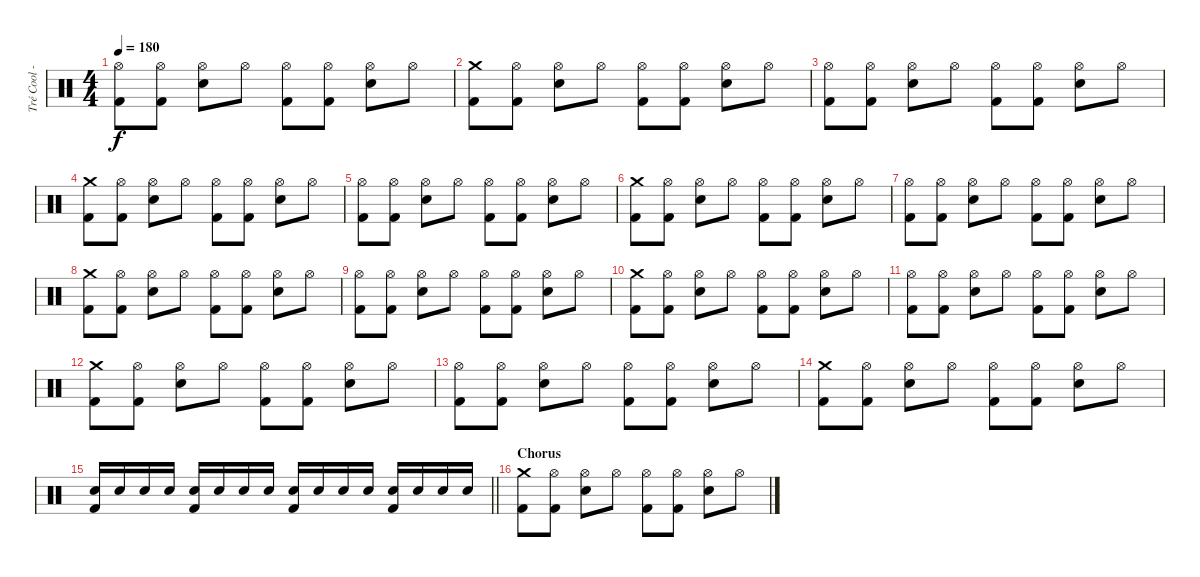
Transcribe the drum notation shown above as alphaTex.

\track ("Tré Cool - Drums" "Tré Cool -") {instrument percussion}
\staff {score}
\articulation defaults
\ts (4 4)
\tempo 180
\clef neutral
\ks c
("Hi-Hat (open)" "Kick (hit) 2").8{dy f} ("Hi-Hat (open)" "Kick (hit) 2").8 ("Hi-Hat (open)" "Electric Snare (hit)").8 "Hi-Hat (open)".8 ("Hi-Hat (open)" "Kick (hit) 2").8 ("Hi-Hat (open)" "Kick (hit) 2").8 ("Hi-Hat (open)" "Electric Snare (hit)").8 "Hi-Hat (open)".8 |
("Crash medium (hit)" "Kick (hit) 2").8 ("Hi-Hat (open)" "Kick (hit) 2").8 ("Hi-Hat (open)" "Electric Snare (hit)").8 "Hi-Hat (open)".8 ("Hi-Hat (open)" "Kick (hit) 2").8 ("Hi-Hat (open)" "Kick (hit) 2").8 ("Hi-Hat (open)" "Electric Snare (hit)").8 "Hi-Hat (open)".8 |
("Hi-Hat (open)" "Kick (hit) 2").8 ("Hi-Hat (open)" "Kick (hit) 2").8 ("Hi-Hat (open)" "Electric Snare (hit)").8 "Hi-Hat (open)".8 ("Hi-Hat (open)" "Kick (hit) 2").8 ("Hi-Hat (open)" "Kick (hit) 2").8 ("Hi-Hat (open)" "Electric Snare (hit)").8 "Hi-Hat (open)".8 |
("Crash medium (hit)" "Kick (hit) 2").8 ("Hi-Hat (open)" "Kick (hit) 2").8 ("Hi-Hat (open)" "Electric Snare (hit)").8 "Hi-Hat (open)".8 ("Hi-Hat (open)" "Kick (hit) 2").8 ("Hi-Hat (open)" "Kick (hit) 2").8 ("Hi-Hat (open)" "Electric Snare (hit)").8 "Hi-Hat (open)".8 |
("Hi-Hat (open)" "Kick (hit) 2").8 ("Hi-Hat (open)" "Kick (hit) 2").8 ("Hi-Hat (open)" "Electric Snare (hit)").8 "Hi-Hat (open)".8 ("Hi-Hat (open)" "Kick (hit) 2").8 ("Hi-Hat (open)" "Kick (hit) 2").8 ("Hi-Hat (open)" "Electric Snare (hit)").8 "Hi-Hat (open)".8 |
("Crash medium (hit)" "Kick (hit) 2").8 ("Hi-Hat (open)" "Kick (hit) 2").8 ("Hi-Hat (open)" "Electric Snare (hit)").8 "Hi-Hat (open)".8 ("Hi-Hat (open)" "Kick (hit) 2").8 ("Hi-Hat (open)" "Kick (hit) 2").8 ("Hi-Hat (open)" "Electric Snare (hit)").8 "Hi-Hat (open)".8 |
("Hi-Hat (open)" "Kick (hit) 2").8 ("Hi-Hat (open)" "Kick (hit) 2").8 ("Hi-Hat (open)" "Electric Snare (hit)").8 "Hi-Hat (open)".8 ("Hi-Hat (open)" "Kick (hit) 2").8 ("Hi-Hat (open)" "Kick (hit) 2").8 ("Hi-Hat (open)" "Electric Snare (hit)").8 "Hi-Hat (open)".8 |
("Crash medium (hit)" "Kick (hit) 2").8 ("Hi-Hat (open)" "Kick (hit) 2").8 ("Hi-Hat (open)" "Electric Snare (hit)").8 "Hi-Hat (open)".8 ("Hi-Hat (open)" "Kick (hit) 2").8 ("Hi-Hat (open)" "Kick (hit) 2").8 ("Hi-Hat (open)" "Electric Snare (hit)").8 "Hi-Hat (open)".8 |
("Hi-Hat (open)" "Kick (hit) 2").8 ("Hi-Hat (open)" "Kick (hit) 2").8 ("Hi-Hat (open)" "Electric Snare (hit)").8 "Hi-Hat (open)".8 ("Hi-Hat (open)" "Kick (hit) 2").8 ("Hi-Hat (open)" "Kick (hit) 2").8 ("Hi-Hat (open)" "Electric Snare (hit)").8 "Hi-Hat (open)".8 |
("Crash medium (hit)" "Kick (hit) 2").8 ("Hi-Hat (open)" "Kick (hit) 2").8 ("Hi-Hat (open)" "Electric Snare (hit)").8 "Hi-Hat (open)".8 ("Hi-Hat (open)" "Kick (hit) 2").8 ("Hi-Hat (open)" "Kick (hit) 2").8 ("Hi-Hat (open)" "Electric Snare (hit)").8 "Hi-Hat (open)".8 |
("Hi-Hat (open)" "Kick (hit) 2").8 ("Hi-Hat (open)" "Kick (hit) 2").8 ("Hi-Hat (open)" "Electric Snare (hit)").8 "Hi-Hat (open)".8 ("Hi-Hat (open)" "Kick (hit) 2").8 ("Hi-Hat (open)" "Kick (hit) 2").8 ("Hi-Hat (open)" "Electric Snare (hit)").8 "Hi-Hat (open)".8 |
("Crash medium (hit)" "Kick (hit) 2").8 ("Hi-Hat (open)" "Kick (hit) 2").8 ("Hi-Hat (open)" "Electric Snare (hit)").8 "Hi-Hat (open)".8 ("Hi-Hat (open)" "Kick (hit) 2").8 ("Hi-Hat (open)" "Kick (hit) 2").8 ("Hi-Hat (open)" "Electric Snare (hit)").8 "Hi-Hat (open)".8 |
("Hi-Hat (open)" "Kick (hit) 2").8 ("Hi-Hat (open)" "Kick (hit) 2").8 ("Hi-Hat (open)" "Electric Snare (hit)").8 "Hi-Hat (open)".8 ("Hi-Hat (open)" "Kick (hit) 2").8 ("Hi-Hat (open)" "Kick (hit) 2").8 ("Hi-Hat (open)" "Electric Snare (hit)").8 "Hi-Hat (open)".8 |
("Crash medium (hit)" "Kick (hit) 2").8 ("Hi-Hat (open)" "Kick (hit) 2").8 ("Hi-Hat (open)" "Electric Snare (hit)").8 "Hi-Hat (open)".8 ("Hi-Hat (open)" "Kick (hit) 2").8 ("Hi-Hat (open)" "Kick (hit) 2").8 ("Hi-Hat (open)" "Electric Snare (hit)").8 "Hi-Hat (open)".8 |
\barLineRight lightlight
("Kick (hit) 2" "Electric Snare (hit)").16 "Electric Snare (hit)".16 "Electric Snare (hit)".16 "Electric Snare (hit)".16 ("Kick (hit) 2" "Electric Snare (hit)").16 "Electric Snare (hit)".16 "Electric Snare (hit)".16 "Electric Snare (hit)".16 ("Kick (hit) 2" "Electric Snare (hit)").16 "Electric Snare (hit)".16 "Electric Snare (hit)".16 "Electric Snare (hit)".16 ("Kick (hit) 2" "Electric Snare (hit)").16 "Electric Snare (hit)".16 "Electric Snare (hit)".16 "Electric Snare (hit)".16 |
\section ("" "Chorus")
("Crash medium (hit)" "Kick (hit) 2").8 ("Hi-Hat (open)" "Kick (hit) 2").8 ("Hi-Hat (open)" "Electric Snare (hit)").8 "Hi-Hat (open)".8 ("Hi-Hat (open)" "Kick (hit) 2").8 ("Hi-Hat (open)" "Kick (hit) 2").8 ("Hi-Hat (open)" "Electric Snare (hit)").8 "Hi-Hat (open)".8
